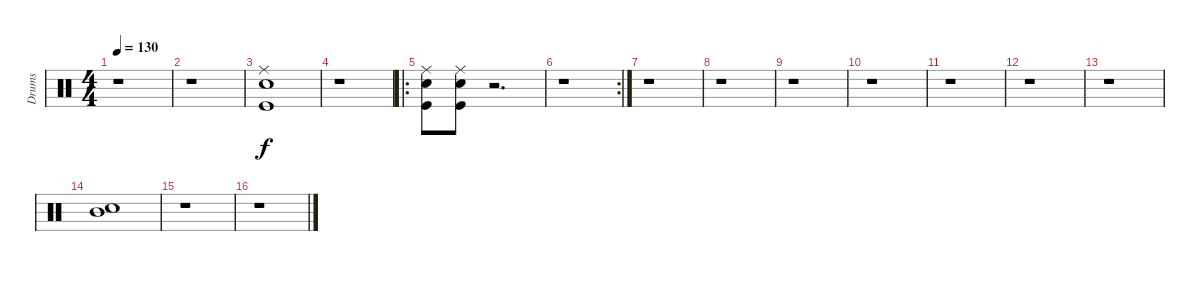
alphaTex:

\track ("Drums" "Drums") {instrument percussion}
\staff {score}
\articulation defaults
\ts (4 4)
\tempo 130
\clef neutral
\ks c
r.1{dy f} |
r.1 |
("Ride (middle)" "Snare (hit) 2" "Kick (hit)").1 |
r.1 |
\ro
("Ride (middle)" "Snare (hit) 2" "Kick (hit)").8 ("Ride (middle)" "Snare (hit) 2" "Kick (hit)").8 r.2{d} |
\rc 2
r.1 |
r.1 |
r.1 |
r.1 |
r.1 |
r.1 |
r.1 |
r.1 |
("Snare (hit) 2" "Mid Tom (hit)").1 |
r.1 |
r.1
